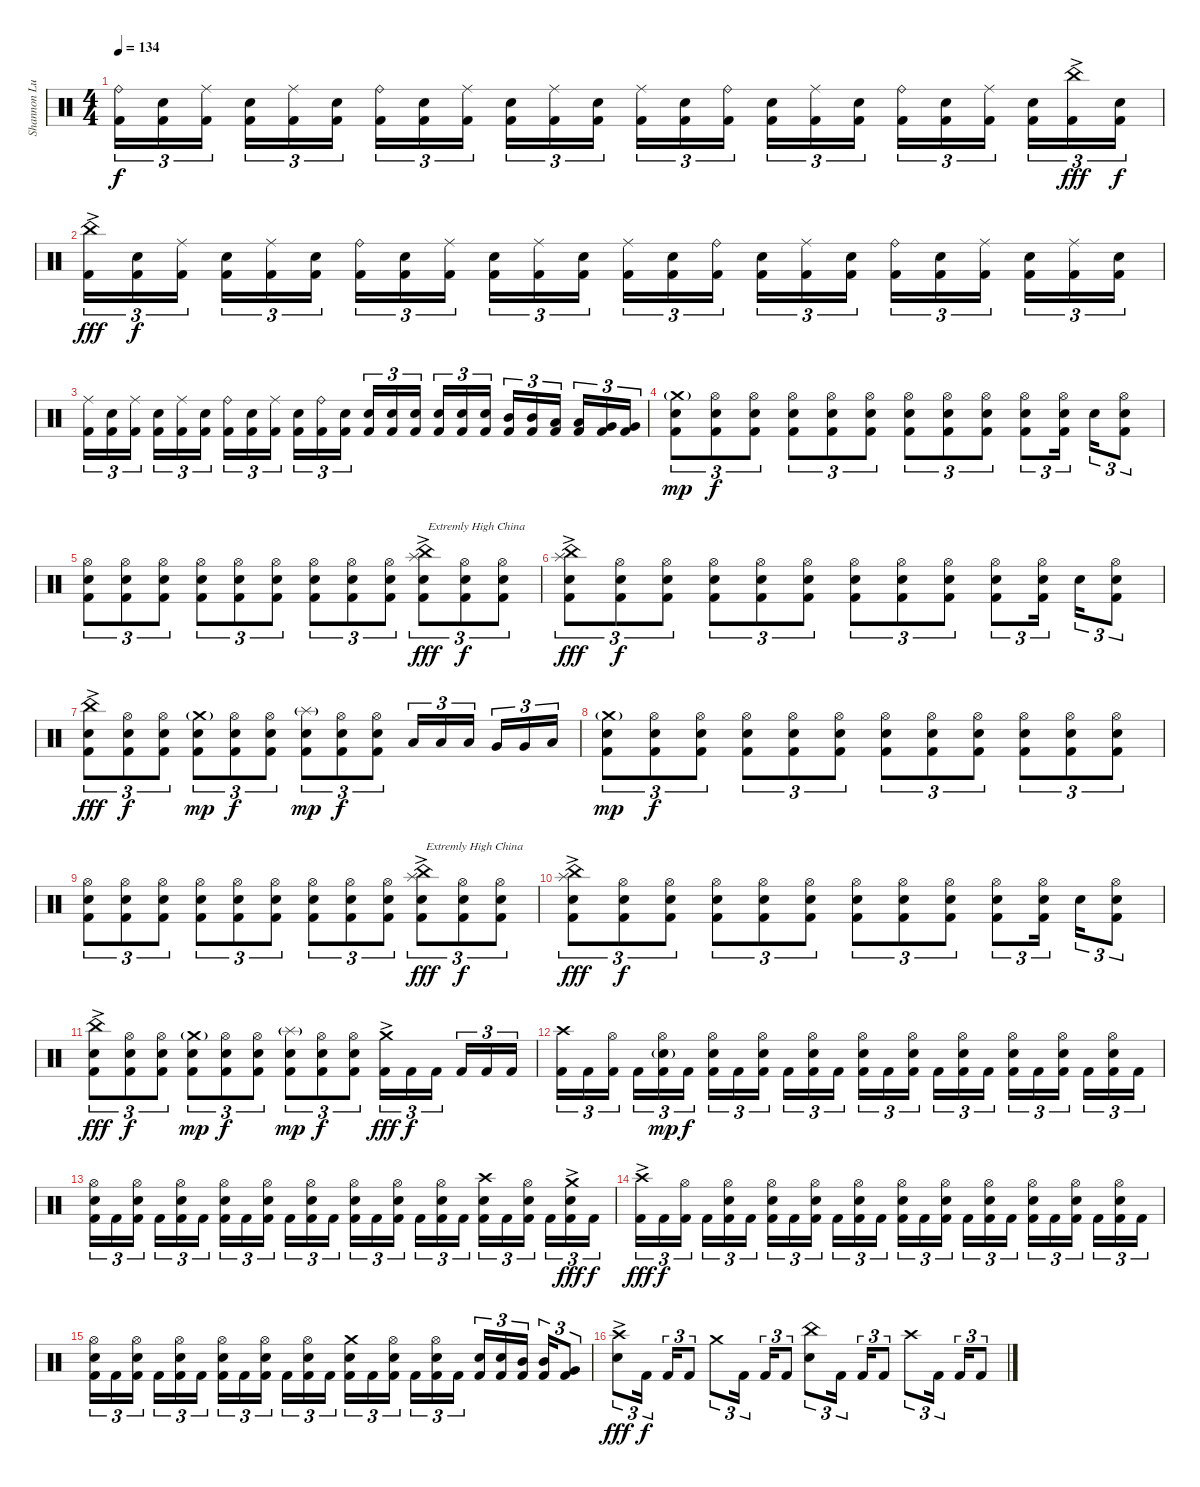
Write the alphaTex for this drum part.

\track ("Shannon Lucas [Drums (Since 2007)]" "Shannon Lu") {instrument percussion}
\staff {score}
\articulation defaults
\ts (4 4)
\tempo 134
\clef neutral
\ks c
("Ride (bell)" "Kick (hit) 2").16{tu (3 2) dy f} ("Snare (hit) 2" "Kick (hit) 2").16{tu (3 2)} ("Ride (middle)" "Kick (hit) 2").16{tu (3 2)} ("Snare (hit) 2" "Kick (hit) 2").16{tu (3 2)} ("Ride (middle)" "Kick (hit) 2").16{tu (3 2)} ("Snare (hit) 2" "Kick (hit) 2").16{tu (3 2)} ("Ride (bell)" "Kick (hit) 2").16{tu (3 2)} ("Snare (hit) 2" "Kick (hit) 2").16{tu (3 2)} ("Ride (middle)" "Kick (hit) 2").16{tu (3 2)} ("Snare (hit) 2" "Kick (hit) 2").16{tu (3 2)} ("Ride (middle)" "Kick (hit) 2").16{tu (3 2)} ("Snare (hit) 2" "Kick (hit) 2").16{tu (3 2)} ("Ride (middle)" "Kick (hit) 2").16{tu (3 2)} ("Snare (hit) 2" "Kick (hit) 2").16{tu (3 2)} ("Ride (bell)" "Kick (hit) 2").16{tu (3 2)} ("Snare (hit) 2" "Kick (hit) 2").16{tu (3 2)} ("Ride (middle)" "Kick (hit) 2").16{tu (3 2)} ("Snare (hit) 2" "Kick (hit) 2").16{tu (3 2)} ("Ride (bell)" "Kick (hit) 2").16{tu (3 2)} ("Snare (hit) 2" "Kick (hit) 2").16{tu (3 2)} ("Ride (middle)" "Kick (hit) 2").16{tu (3 2)} ("Snare (hit) 2" "Kick (hit) 2").16{tu (3 2)} ("China (hit)"{ac} "Kick (hit) 2").16{tu (3 2) dy fff} ("Snare (hit) 2" "Kick (hit) 2").16{tu (3 2) dy f} |
("China (hit)"{ac} "Kick (hit) 2").16{tu (3 2) dy fff} ("Snare (hit) 2" "Kick (hit) 2").16{tu (3 2) dy f} ("Ride (middle)" "Kick (hit) 2").16{tu (3 2)} ("Snare (hit) 2" "Kick (hit) 2").16{tu (3 2)} ("Ride (middle)" "Kick (hit) 2").16{tu (3 2)} ("Snare (hit) 2" "Kick (hit) 2").16{tu (3 2)} ("Ride (bell)" "Kick (hit) 2").16{tu (3 2)} ("Snare (hit) 2" "Kick (hit) 2").16{tu (3 2)} ("Ride (middle)" "Kick (hit) 2").16{tu (3 2)} ("Snare (hit) 2" "Kick (hit) 2").16{tu (3 2)} ("Ride (middle)" "Kick (hit) 2").16{tu (3 2)} ("Snare (hit) 2" "Kick (hit) 2").16{tu (3 2)} ("Ride (middle)" "Kick (hit) 2").16{tu (3 2)} ("Snare (hit) 2" "Kick (hit) 2").16{tu (3 2)} ("Ride (bell)" "Kick (hit) 2").16{tu (3 2)} ("Snare (hit) 2" "Kick (hit) 2").16{tu (3 2)} ("Ride (middle)" "Kick (hit) 2").16{tu (3 2)} ("Snare (hit) 2" "Kick (hit) 2").16{tu (3 2)} ("Ride (bell)" "Kick (hit) 2").16{tu (3 2)} ("Snare (hit) 2" "Kick (hit) 2").16{tu (3 2)} ("Ride (middle)" "Kick (hit) 2").16{tu (3 2)} ("Snare (hit) 2" "Kick (hit) 2").16{tu (3 2)} ("Ride (middle)" "Kick (hit) 2").16{tu (3 2)} ("Snare (hit) 2" "Kick (hit) 2").16{tu (3 2)} |
("Ride (middle)" "Kick (hit) 2").16{tu (3 2)} ("Snare (hit) 2" "Kick (hit) 2").16{tu (3 2)} ("Ride (middle)" "Kick (hit) 2").16{tu (3 2)} ("Snare (hit) 2" "Kick (hit) 2").16{tu (3 2)} ("Ride (middle)" "Kick (hit) 2").16{tu (3 2)} ("Snare (hit) 2" "Kick (hit) 2").16{tu (3 2)} ("Ride (bell)" "Kick (hit) 2").16{tu (3 2)} ("Snare (hit) 2" "Kick (hit) 2").16{tu (3 2)} ("Ride (middle)" "Kick (hit) 2").16{tu (3 2)} ("Snare (hit) 2" "Kick (hit) 2").16{tu (3 2)} ("Ride (bell)" "Kick (hit) 2").16{tu (3 2)} ("Snare (hit) 2" "Kick (hit) 2").16{tu (3 2)} ("Snare (hit) 2" "Kick (hit) 2").16{tu (3 2)} ("Snare (hit) 2" "Kick (hit) 2").16{tu (3 2)} ("Snare (hit) 2" "Kick (hit) 2").16{tu (3 2)} ("Snare (hit) 2" "Kick (hit) 2").16{tu (3 2)} ("Snare (hit) 2" "Kick (hit) 2").16{tu (3 2)} ("Snare (hit) 2" "Kick (hit) 2").16{tu (3 2)} ("Mid Tom (hit)" "Kick (hit) 2").16{tu (3 2)} ("Mid Tom (hit)" "Kick (hit) 2").16{tu (3 2)} ("Low Tom (hit)" "Kick (hit) 2").16{tu (3 2)} ("Low Tom (hit)" "Kick (hit) 2").16{tu (3 2)} ("Very Low Tom (hit)" "Kick (hit) 2").16{tu (3 2)} ("Very Low Tom (hit)" "Kick (hit) 2").16{tu (3 2)} |
("Crash medium (hit)"{g} "Snare (hit) 2" "Kick (hit) 2").8{tu (3 2) dy mp} ("Hi-Hat (open)" "Snare (hit) 2" "Kick (hit) 2").8{tu (3 2) dy f} ("Hi-Hat (open)" "Snare (hit) 2" "Kick (hit) 2").8{tu (3 2)} ("Hi-Hat (open)" "Snare (hit) 2" "Kick (hit) 2").8{tu (3 2)} ("Hi-Hat (open)" "Snare (hit) 2" "Kick (hit) 2").8{tu (3 2)} ("Hi-Hat (open)" "Snare (hit) 2" "Kick (hit) 2").8{tu (3 2)} ("Hi-Hat (open)" "Snare (hit) 2" "Kick (hit) 2").8{tu (3 2)} ("Hi-Hat (open)" "Snare (hit) 2" "Kick (hit) 2").8{tu (3 2)} ("Hi-Hat (open)" "Snare (hit) 2" "Kick (hit) 2").8{tu (3 2)} ("Hi-Hat (open)" "Snare (hit) 2" "Kick (hit) 2").8{tu (3 2)} ("Hi-Hat (open)" "Snare (hit) 2" "Kick (hit) 2").16{tu (3 2)} "Snare (hit) 2".16{tu (3 2)} ("Hi-Hat (open)" "Snare (hit) 2" "Kick (hit) 2").8{tu (3 2)} |
("Hi-Hat (open)" "Snare (hit) 2" "Kick (hit) 2").8{tu (3 2)} ("Hi-Hat (open)" "Snare (hit) 2" "Kick (hit) 2").8{tu (3 2)} ("Hi-Hat (open)" "Snare (hit) 2" "Kick (hit) 2").8{tu (3 2)} ("Hi-Hat (open)" "Snare (hit) 2" "Kick (hit) 2").8{tu (3 2)} ("Hi-Hat (open)" "Snare (hit) 2" "Kick (hit) 2").8{tu (3 2)} ("Hi-Hat (open)" "Snare (hit) 2" "Kick (hit) 2").8{tu (3 2)} ("Hi-Hat (open)" "Snare (hit) 2" "Kick (hit) 2").8{tu (3 2)} ("Hi-Hat (open)" "Snare (hit) 2" "Kick (hit) 2").8{tu (3 2)} ("Hi-Hat (open)" "Snare (hit) 2" "Kick (hit) 2").8{tu (3 2)} ("Splash (hit)"{ac} "China (hit)"{ac} "Snare (hit) 2" "Kick (hit) 2").8{tu (3 2) txt "Extremly High China" dy fff} ("Hi-Hat (open)" "Snare (hit) 2" "Kick (hit) 2").8{tu (3 2) dy f} ("Hi-Hat (open)" "Snare (hit) 2" "Kick (hit) 2").8{tu (3 2)} |
("Splash (hit)"{ac} "China (hit)"{ac} "Snare (hit) 2" "Kick (hit) 2").8{tu (3 2) dy fff} ("Hi-Hat (open)" "Snare (hit) 2" "Kick (hit) 2").8{tu (3 2) dy f} ("Hi-Hat (open)" "Snare (hit) 2" "Kick (hit) 2").8{tu (3 2)} ("Hi-Hat (open)" "Snare (hit) 2" "Kick (hit) 2").8{tu (3 2)} ("Hi-Hat (open)" "Snare (hit) 2" "Kick (hit) 2").8{tu (3 2)} ("Hi-Hat (open)" "Snare (hit) 2" "Kick (hit) 2").8{tu (3 2)} ("Hi-Hat (open)" "Snare (hit) 2" "Kick (hit) 2").8{tu (3 2)} ("Hi-Hat (open)" "Snare (hit) 2" "Kick (hit) 2").8{tu (3 2)} ("Hi-Hat (open)" "Snare (hit) 2" "Kick (hit) 2").8{tu (3 2)} ("Hi-Hat (open)" "Snare (hit) 2" "Kick (hit) 2").8{tu (3 2)} ("Hi-Hat (open)" "Snare (hit) 2" "Kick (hit) 2").16{tu (3 2)} "Snare (hit) 2".16{tu (3 2)} ("Hi-Hat (open)" "Snare (hit) 2" "Kick (hit) 2").8{tu (3 2)} |
("China (hit)"{ac} "Snare (hit) 2" "Kick (hit) 2").8{tu (3 2) dy fff} ("Hi-Hat (open)" "Snare (hit) 2" "Kick (hit) 2").8{tu (3 2) dy f} ("Hi-Hat (open)" "Snare (hit) 2" "Kick (hit) 2").8{tu (3 2)} ("Crash medium (hit)"{g} "Snare (hit) 2" "Kick (hit) 2").8{tu (3 2) dy mp} ("Hi-Hat (open)" "Snare (hit) 2" "Kick (hit) 2").8{tu (3 2) dy f} ("Hi-Hat (open)" "Snare (hit) 2" "Kick (hit) 2").8{tu (3 2)} ("Splash (hit)"{g} "Snare (hit) 2" "Kick (hit) 2").8{tu (3 2) dy mp} ("Hi-Hat (open)" "Snare (hit) 2" "Kick (hit) 2").8{tu (3 2) dy f} ("Hi-Hat (open)" "Snare (hit) 2" "Kick (hit) 2").8{tu (3 2)} "Low Tom (hit)".16{tu (3 2)} "Low Tom (hit)".16{tu (3 2)} "Low Tom (hit)".16{tu (3 2)} "Very Low Tom (hit)".16{tu (3 2)} "Very Low Tom (hit)".16{tu (3 2)} "Low Floor Tom (hit)".16{tu (3 2)} |
("Crash medium (hit)"{g} "Snare (hit) 2" "Kick (hit) 2").8{tu (3 2) dy mp} ("Hi-Hat (open)" "Snare (hit) 2" "Kick (hit) 2").8{tu (3 2) dy f} ("Hi-Hat (open)" "Snare (hit) 2" "Kick (hit) 2").8{tu (3 2)} ("Hi-Hat (open)" "Snare (hit) 2" "Kick (hit) 2").8{tu (3 2)} ("Hi-Hat (open)" "Snare (hit) 2" "Kick (hit) 2").8{tu (3 2)} ("Hi-Hat (open)" "Snare (hit) 2" "Kick (hit) 2").8{tu (3 2)} ("Hi-Hat (open)" "Snare (hit) 2" "Kick (hit) 2").8{tu (3 2)} ("Hi-Hat (open)" "Snare (hit) 2" "Kick (hit) 2").8{tu (3 2)} ("Hi-Hat (open)" "Snare (hit) 2" "Kick (hit) 2").8{tu (3 2)} ("Hi-Hat (open)" "Snare (hit) 2" "Kick (hit) 2").8{tu (3 2)} ("Hi-Hat (open)" "Snare (hit) 2" "Kick (hit) 2").8{tu (3 2)} ("Hi-Hat (open)" "Snare (hit) 2" "Kick (hit) 2").8{tu (3 2)} |
("Hi-Hat (open)" "Snare (hit) 2" "Kick (hit) 2").8{tu (3 2)} ("Hi-Hat (open)" "Snare (hit) 2" "Kick (hit) 2").8{tu (3 2)} ("Hi-Hat (open)" "Snare (hit) 2" "Kick (hit) 2").8{tu (3 2)} ("Hi-Hat (open)" "Snare (hit) 2" "Kick (hit) 2").8{tu (3 2)} ("Hi-Hat (open)" "Snare (hit) 2" "Kick (hit) 2").8{tu (3 2)} ("Hi-Hat (open)" "Snare (hit) 2" "Kick (hit) 2").8{tu (3 2)} ("Hi-Hat (open)" "Snare (hit) 2" "Kick (hit) 2").8{tu (3 2)} ("Hi-Hat (open)" "Snare (hit) 2" "Kick (hit) 2").8{tu (3 2)} ("Hi-Hat (open)" "Snare (hit) 2" "Kick (hit) 2").8{tu (3 2)} ("Splash (hit)"{ac} "China (hit)"{ac} "Snare (hit) 2" "Kick (hit) 2").8{tu (3 2) txt "Extremly High China" dy fff} ("Hi-Hat (open)" "Snare (hit) 2" "Kick (hit) 2").8{tu (3 2) dy f} ("Hi-Hat (open)" "Snare (hit) 2" "Kick (hit) 2").8{tu (3 2)} |
("Splash (hit)"{ac} "China (hit)"{ac} "Snare (hit) 2" "Kick (hit) 2").8{tu (3 2) dy fff} ("Hi-Hat (open)" "Snare (hit) 2" "Kick (hit) 2").8{tu (3 2) dy f} ("Hi-Hat (open)" "Snare (hit) 2" "Kick (hit) 2").8{tu (3 2)} ("Hi-Hat (open)" "Snare (hit) 2" "Kick (hit) 2").8{tu (3 2)} ("Hi-Hat (open)" "Snare (hit) 2" "Kick (hit) 2").8{tu (3 2)} ("Hi-Hat (open)" "Snare (hit) 2" "Kick (hit) 2").8{tu (3 2)} ("Hi-Hat (open)" "Snare (hit) 2" "Kick (hit) 2").8{tu (3 2)} ("Hi-Hat (open)" "Snare (hit) 2" "Kick (hit) 2").8{tu (3 2)} ("Hi-Hat (open)" "Snare (hit) 2" "Kick (hit) 2").8{tu (3 2)} ("Hi-Hat (open)" "Snare (hit) 2" "Kick (hit) 2").8{tu (3 2)} ("Hi-Hat (open)" "Snare (hit) 2" "Kick (hit) 2").16{tu (3 2)} "Snare (hit) 2".16{tu (3 2)} ("Hi-Hat (open)" "Snare (hit) 2" "Kick (hit) 2").8{tu (3 2)} |
("China (hit)"{ac} "Snare (hit) 2" "Kick (hit) 2").8{tu (3 2) dy fff} ("Hi-Hat (open)" "Snare (hit) 2" "Kick (hit) 2").8{tu (3 2) dy f} ("Hi-Hat (open)" "Snare (hit) 2" "Kick (hit) 2").8{tu (3 2)} ("Crash medium (hit)"{g} "Snare (hit) 2" "Kick (hit) 2").8{tu (3 2) dy mp} ("Hi-Hat (open)" "Snare (hit) 2" "Kick (hit) 2").8{tu (3 2) dy f} ("Hi-Hat (open)" "Snare (hit) 2" "Kick (hit) 2").8{tu (3 2)} ("Splash (hit)"{g} "Snare (hit) 2" "Kick (hit) 2").8{tu (3 2) dy mp} ("Hi-Hat (open)" "Snare (hit) 2" "Kick (hit) 2").8{tu (3 2) dy f} ("Hi-Hat (open)" "Snare (hit) 2" "Kick (hit) 2").8{tu (3 2)} ("Crash medium (hit)"{ac} "Kick (hit) 2").16{tu (3 2) dy fff} "Kick (hit) 2".16{tu (3 2) dy f} "Kick (hit) 2".16{tu (3 2)} "Kick (hit) 2".16{tu (3 2)} "Kick (hit) 2".16{tu (3 2)} "Kick (hit) 2".16{tu (3 2)} |
("Crash high (hit)" "Kick (hit) 2").16{tu (3 2)} "Kick (hit) 2".16{tu (3 2)} ("Hi-Hat (open)" "Kick (hit) 2").16{tu (3 2)} "Kick (hit) 2".16{tu (3 2)} ("Snare (hit) 2"{g} "Hi-Hat (open)" "Kick (hit) 2").16{tu (3 2) dy mp} "Kick (hit) 2".16{tu (3 2) dy f} ("Hi-Hat (open)" "Snare (hit) 2" "Kick (hit) 2").16{tu (3 2)} "Kick (hit) 2".16{tu (3 2)} ("Hi-Hat (open)" "Snare (hit) 2" "Kick (hit) 2").16{tu (3 2)} "Kick (hit) 2".16{tu (3 2)} ("Hi-Hat (open)" "Snare (hit) 2" "Kick (hit) 2").16{tu (3 2)} "Kick (hit) 2".16{tu (3 2)} ("Hi-Hat (open)" "Snare (hit) 2" "Kick (hit) 2").16{tu (3 2)} "Kick (hit) 2".16{tu (3 2)} ("Hi-Hat (open)" "Snare (hit) 2" "Kick (hit) 2").16{tu (3 2)} "Kick (hit) 2".16{tu (3 2)} ("Hi-Hat (open)" "Snare (hit) 2" "Kick (hit) 2").16{tu (3 2)} "Kick (hit) 2".16{tu (3 2)} ("Hi-Hat (open)" "Snare (hit) 2" "Kick (hit) 2").16{tu (3 2)} "Kick (hit) 2".16{tu (3 2)} ("Hi-Hat (open)" "Snare (hit) 2" "Kick (hit) 2").16{tu (3 2)} "Kick (hit) 2".16{tu (3 2)} ("Hi-Hat (open)" "Snare (hit) 2" "Kick (hit) 2").16{tu (3 2)} "Kick (hit) 2".16{tu (3 2)} |
("Hi-Hat (open)" "Snare (hit) 2" "Kick (hit) 2").16{tu (3 2)} "Kick (hit) 2".16{tu (3 2)} ("Hi-Hat (open)" "Snare (hit) 2" "Kick (hit) 2").16{tu (3 2)} "Kick (hit) 2".16{tu (3 2)} ("Hi-Hat (open)" "Snare (hit) 2" "Kick (hit) 2").16{tu (3 2)} "Kick (hit) 2".16{tu (3 2)} ("Hi-Hat (open)" "Snare (hit) 2" "Kick (hit) 2").16{tu (3 2)} "Kick (hit) 2".16{tu (3 2)} ("Hi-Hat (open)" "Snare (hit) 2" "Kick (hit) 2").16{tu (3 2)} "Kick (hit) 2".16{tu (3 2)} ("Hi-Hat (open)" "Snare (hit) 2" "Kick (hit) 2").16{tu (3 2)} "Kick (hit) 2".16{tu (3 2)} ("Hi-Hat (open)" "Snare (hit) 2" "Kick (hit) 2").16{tu (3 2)} "Kick (hit) 2".16{tu (3 2)} ("Hi-Hat (open)" "Snare (hit) 2" "Kick (hit) 2").16{tu (3 2)} "Kick (hit) 2".16{tu (3 2)} ("Hi-Hat (open)" "Snare (hit) 2" "Kick (hit) 2").16{tu (3 2)} "Kick (hit) 2".16{tu (3 2)} ("Crash high (hit)" "Snare (hit) 2" "Kick (hit) 2").16{tu (3 2)} "Kick (hit) 2".16{tu (3 2)} ("Hi-Hat (open)" "Snare (hit) 2" "Kick (hit) 2").16{tu (3 2)} "Kick (hit) 2".16{tu (3 2)} ("Crash medium (hit)"{ac} "Snare (hit) 2" "Kick (hit) 2").16{tu (3 2) dy fff} "Kick (hit) 2".16{tu (3 2) dy f} |
("Crash high (hit)"{ac} "Kick (hit) 2").16{tu (3 2) dy fff} "Kick (hit) 2".16{tu (3 2) dy f} ("Hi-Hat (open)" "Kick (hit) 2").16{tu (3 2)} "Kick (hit) 2".16{tu (3 2)} ("Hi-Hat (open)" "Snare (hit) 2" "Kick (hit) 2").16{tu (3 2)} "Kick (hit) 2".16{tu (3 2)} ("Hi-Hat (open)" "Snare (hit) 2" "Kick (hit) 2").16{tu (3 2)} "Kick (hit) 2".16{tu (3 2)} ("Hi-Hat (open)" "Snare (hit) 2" "Kick (hit) 2").16{tu (3 2)} "Kick (hit) 2".16{tu (3 2)} ("Hi-Hat (open)" "Snare (hit) 2" "Kick (hit) 2").16{tu (3 2)} "Kick (hit) 2".16{tu (3 2)} ("Hi-Hat (open)" "Snare (hit) 2" "Kick (hit) 2").16{tu (3 2)} "Kick (hit) 2".16{tu (3 2)} ("Hi-Hat (open)" "Snare (hit) 2" "Kick (hit) 2").16{tu (3 2)} "Kick (hit) 2".16{tu (3 2)} ("Hi-Hat (open)" "Snare (hit) 2" "Kick (hit) 2").16{tu (3 2)} "Kick (hit) 2".16{tu (3 2)} ("Hi-Hat (open)" "Snare (hit) 2" "Kick (hit) 2").16{tu (3 2)} "Kick (hit) 2".16{tu (3 2)} ("Hi-Hat (open)" "Snare (hit) 2" "Kick (hit) 2").16{tu (3 2)} "Kick (hit) 2".16{tu (3 2)} ("Hi-Hat (open)" "Snare (hit) 2" "Kick (hit) 2").16{tu (3 2)} "Kick (hit) 2".16{tu (3 2)} |
("Hi-Hat (open)" "Snare (hit) 2" "Kick (hit) 2").16{tu (3 2)} "Kick (hit) 2".16{tu (3 2)} ("Hi-Hat (open)" "Snare (hit) 2" "Kick (hit) 2").16{tu (3 2)} "Kick (hit) 2".16{tu (3 2)} ("Hi-Hat (open)" "Snare (hit) 2" "Kick (hit) 2").16{tu (3 2)} "Kick (hit) 2".16{tu (3 2)} ("Hi-Hat (open)" "Snare (hit) 2" "Kick (hit) 2").16{tu (3 2)} "Kick (hit) 2".16{tu (3 2)} ("Hi-Hat (open)" "Snare (hit) 2" "Kick (hit) 2").16{tu (3 2)} "Kick (hit) 2".16{tu (3 2)} ("Hi-Hat (open)" "Snare (hit) 2" "Kick (hit) 2").16{tu (3 2)} "Kick (hit) 2".16{tu (3 2)} ("Crash medium (hit)" "Snare (hit) 2" "Kick (hit) 2").16{tu (3 2)} "Kick (hit) 2".16{tu (3 2)} ("Hi-Hat (open)" "Snare (hit) 2" "Kick (hit) 2").16{tu (3 2)} "Kick (hit) 2".16{tu (3 2)} ("Hi-Hat (open)" "Snare (hit) 2" "Kick (hit) 2").16{tu (3 2)} "Kick (hit) 2".16{tu (3 2)} ("Snare (hit) 2" "Kick (hit) 2").16{tu (3 2)} ("Snare (hit) 2" "Kick (hit) 2").16{tu (3 2)} ("Mid Tom (hit)" "Kick (hit) 2").16{tu (3 2)} ("Mid Tom (hit)" "Kick (hit) 2").16{tu (3 2)} ("Very Low Tom (hit)" "Kick (hit) 2").8{tu (3 2)} |
("Crash high (hit)"{ac} "Snare (hit) 2"{ac}).8{tu (3 2) dy fff} "Kick (hit) 2".16{tu (3 2) dy f} "Kick (hit) 2".16{tu (3 2)} "Kick (hit) 2".8{tu (3 2)} "Crash medium (hit)".8{tu (3 2)} "Kick (hit) 2".16{tu (3 2)} "Kick (hit) 2".16{tu (3 2)} "Kick (hit) 2".8{tu (3 2)} ("China (hit)" "Snare (hit) 2").8{tu (3 2)} "Kick (hit) 2".16{tu (3 2)} "Kick (hit) 2".16{tu (3 2)} "Kick (hit) 2".8{tu (3 2)} "Crash high (hit)".8{tu (3 2)} "Kick (hit) 2".16{tu (3 2)} "Kick (hit) 2".16{tu (3 2)} "Kick (hit) 2".8{tu (3 2)}
